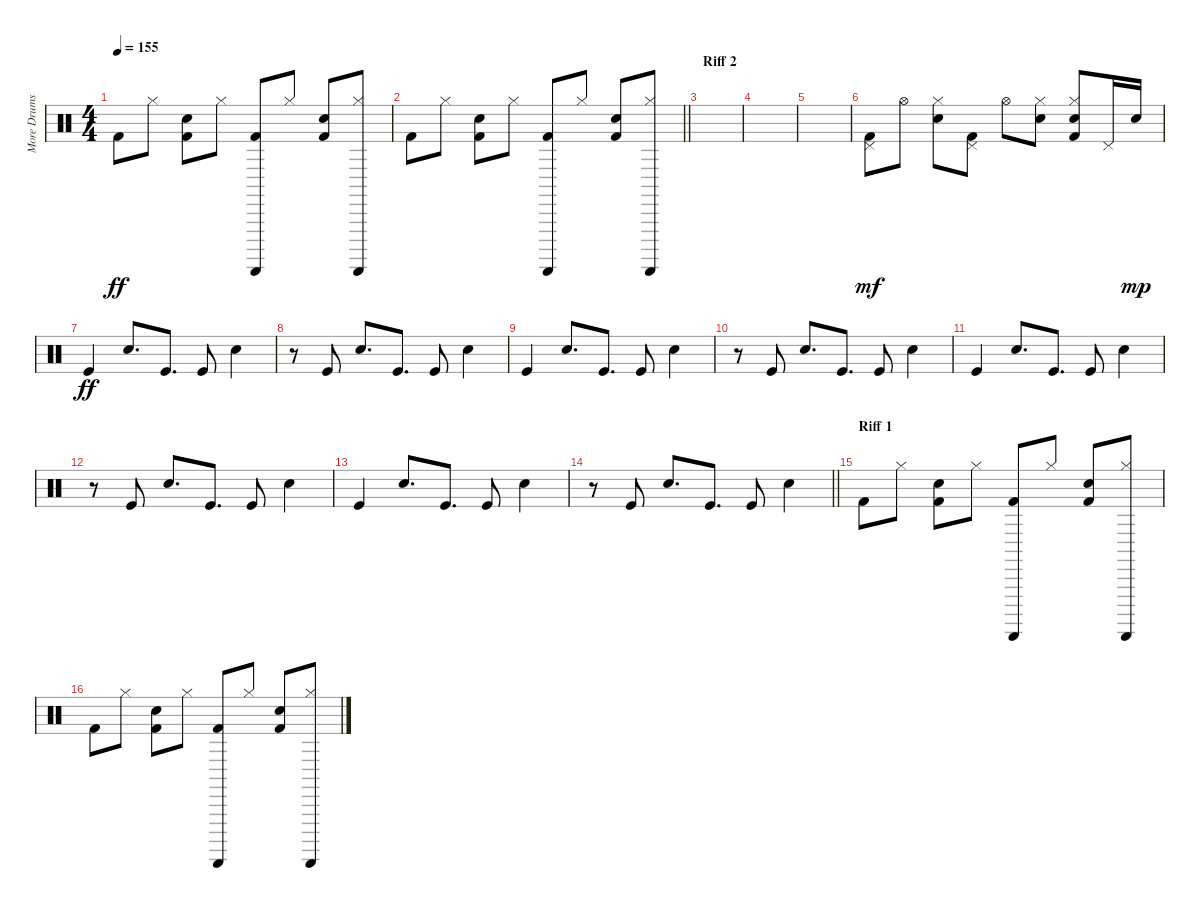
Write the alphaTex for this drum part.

\track ("More Drums" "More Drums") {instrument percussion}
\staff {score}
\articulation defaults
\ts (4 4)
\tempo 155
\clef neutral
\ks c "Kick (hit) 2".8{dy ff} "Hi-Hat (closed)".8
("Kick (hit) 2" "Electric Snare (hit)").8 "Hi-Hat (closed)".8 ("Kick (hit) 2" "Guiro (scrap-return)").8 "Hi-Hat (closed)".8 ("Kick (hit) 2" "Electric Snare (hit)").8 ("Hi-Hat (closed)" "Guiro (scrap-return)").8 |
\barLineRight lightlight "Kick (hit) 2".8 "Hi-Hat (closed)".8
("Kick (hit) 2" "Electric Snare (hit)").8 "Hi-Hat (closed)".8 ("Kick (hit) 2" "Guiro (scrap-return)").8 "Hi-Hat (closed)".8 ("Kick (hit) 2" "Electric Snare (hit)").8 ("Hi-Hat (closed)" "Guiro (scrap-return)").8 |
\section ("" "Riff 2")
|
|
|
("Kick (hit) 2" "Pedal Hi-Hat (hit)").8{dy mf} "Hi-Hat (open)".8 ("Snare (hit) 2" "Hi-Hat (closed)").8 ("Kick (hit) 2" "Pedal Hi-Hat (hit)").8 "Hi-Hat (open)".8 ("Snare (hit) 2" "Hi-Hat (closed)").8 ("Kick (hit) 2" "Snare (hit) 2" "Hi-Hat (closed)").8 "Pedal Hi-Hat (hit)".16 "Snare (hit) 2".16{dy mp} |
"Kick (hit)".4{dy ff} "Electric Snare (hit)".8{d} "Kick (hit)".8{d} "Kick (hit)".8 "Electric Snare (hit)".4 |
r.8 "Kick (hit)".8 "Electric Snare (hit)".8{d} "Kick (hit)".8{d} "Kick (hit)".8 "Electric Snare (hit)".4 |
"Kick (hit)".4 "Electric Snare (hit)".8{d} "Kick (hit)".8{d} "Kick (hit)".8 "Electric Snare (hit)".4 |
r.8 "Kick (hit)".8 "Electric Snare (hit)".8{d} "Kick (hit)".8{d} "Kick (hit)".8 "Electric Snare (hit)".4 |
"Kick (hit)".4 "Electric Snare (hit)".8{d} "Kick (hit)".8{d} "Kick (hit)".8 "Electric Snare (hit)".4 |
r.8 "Kick (hit)".8 "Electric Snare (hit)".8{d} "Kick (hit)".8{d} "Kick (hit)".8 "Electric Snare (hit)".4 |
"Kick (hit)".4 "Electric Snare (hit)".8{d} "Kick (hit)".8{d} "Kick (hit)".8 "Electric Snare (hit)".4 |
\barLineRight lightlight
r.8 "Kick (hit)".8 "Electric Snare (hit)".8{d} "Kick (hit)".8{d} "Kick (hit)".8 "Electric Snare (hit)".4 |
\section ("" "Riff 1")
"Kick (hit) 2".8 "Hi-Hat (closed)".8 ("Kick (hit) 2" "Electric Snare (hit)").8 "Hi-Hat (closed)".8 ("Kick (hit) 2" "Guiro (scrap-return)").8 "Hi-Hat (closed)".8 ("Kick (hit) 2" "Electric Snare (hit)").8 ("Hi-Hat (closed)" "Guiro (scrap-return)").8 |
"Kick (hit) 2".8 "Hi-Hat (closed)".8 ("Kick (hit) 2" "Electric Snare (hit)").8 "Hi-Hat (closed)".8 ("Kick (hit) 2" "Guiro (scrap-return)").8 "Hi-Hat (closed)".8 ("Kick (hit) 2" "Electric Snare (hit)").8 ("Hi-Hat (closed)" "Guiro (scrap-return)").8
